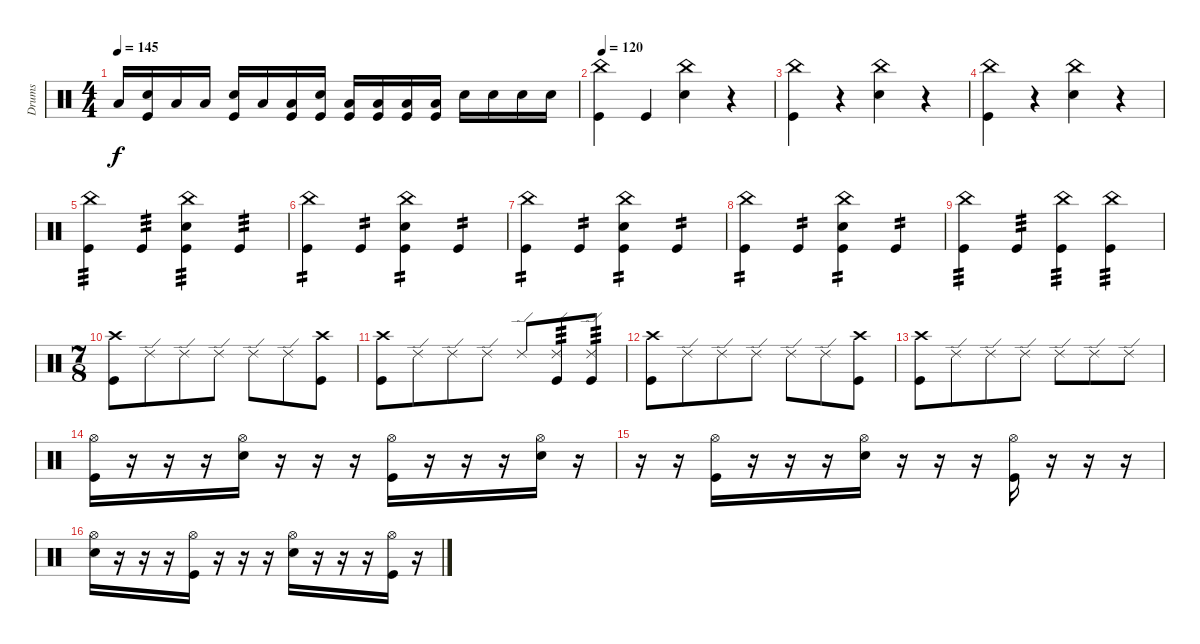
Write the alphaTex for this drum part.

\track ("Drums" "Drums") {instrument percussion}
\staff {score}
\articulation defaults
\ts (4 4)
\tempo 145
\clef neutral
\ks c "Low Tom (hit)".16{dy f}
("Electric Snare (hit)" "Kick (hit)").16 "Low Tom (hit)".16 "Low Tom (hit)".16 ("Electric Snare (hit)" "Kick (hit)").16 "Low Tom (hit)".16 ("Low Floor Tom (hit)" "Kick (hit)").16 ("Electric Snare (hit)" "Kick (hit)").16 ("Low Floor Tom (hit)" "Kick (hit)").16 ("Low Floor Tom (hit)" "Kick (hit)").16 ("Low Floor Tom (hit)" "Kick (hit)").16 ("Low Floor Tom (hit)" "Kick (hit)").16 "Electric Snare (hit)".16 "Electric Snare (hit)".16 "Electric Snare (hit)".16 "Electric Snare (hit)".16 |
\tempo 120
("China (hit)" "Kick (hit)").4 "Kick (hit)".4 ("China (hit)" "Electric Snare (hit)").4 r.4 |
("China (hit)" "Kick (hit)").4 r.4 ("China (hit)" "Electric Snare (hit)").4 r.4 |
("China (hit)" "Kick (hit)").4 r.4 ("China (hit)" "Electric Snare (hit)").4 r.4 |
("China (hit)" "Kick (hit)").4{tp 3} "Kick (hit)".4{tp 3} ("China (hit)" "Electric Snare (hit)" "Kick (hit)").4{tp 3} "Kick (hit)".4{tp 3} |
("China (hit)" "Kick (hit)").4{tp 2} "Kick (hit)".4{tp 2} ("China (hit)" "Electric Snare (hit)" "Kick (hit)").4{tp 2} "Kick (hit)".4{tp 2} |
("China (hit)" "Kick (hit)").4{tp 2} "Kick (hit)".4{tp 2} ("China (hit)" "Electric Snare (hit)" "Kick (hit)").4{tp 2} "Kick (hit)".4{tp 2} |
("China (hit)" "Kick (hit)").4{tp 2} "Kick (hit)".4{tp 2} ("China (hit)" "Electric Snare (hit)" "Kick (hit)").4{tp 2} "Kick (hit)".4{tp 2} |
("China (hit)" "Kick (hit)").4{tp 3} "Kick (hit)".4{tp 3} ("China (hit)" "Kick (hit)").4{tp 3} ("China (hit)" "Kick (hit)").4{tp 3} |
\ts (7 8)
("Crash high (hit)" "Kick (hit)").8 "Ride (edge) 2".8 "Ride (edge) 2".8 "Ride (edge) 2".8 "Ride (edge) 2".8 "Ride (edge) 2".8 ("Crash high (hit)" "Kick (hit)").8 |
("Crash high (hit)" "Kick (hit)").8 "Ride (edge) 2".8 "Ride (edge) 2".8 "Ride (edge) 2".8 "Ride (edge) 2".8 ("Ride (edge) 2" "Kick (hit)").8{tp 3} ("Ride (edge) 2" "Kick (hit)").8{tp 3} |
("Crash high (hit)" "Kick (hit)").8 "Ride (edge) 2".8 "Ride (edge) 2".8 "Ride (edge) 2".8 "Ride (edge) 2".8 "Ride (edge) 2".8 ("Crash high (hit)" "Kick (hit)").8 |
("Crash high (hit)" "Kick (hit)").8 "Ride (edge) 2".8 "Ride (edge) 2".8 "Ride (edge) 2".8 "Ride (edge) 2".8 "Ride (edge) 2".8 "Ride (edge) 2".8 |
("Hi-Hat (open)" "Kick (hit)").16 r.16 r.16 r.16 ("Hi-Hat (open)" "Electric Snare (hit)").16 r.16 r.16 r.16 ("Hi-Hat (open)" "Kick (hit)").16 r.16 r.16 r.16 ("Hi-Hat (open)" "Electric Snare (hit)").16 r.16 |
r.16 r.16 ("Hi-Hat (open)" "Kick (hit)").16 r.16 r.16 r.16 ("Hi-Hat (open)" "Electric Snare (hit)").16 r.16 r.16 r.16 ("Hi-Hat (open)" "Kick (hit)").16 r.16 r.16 r.16 |
("Hi-Hat (open)" "Electric Snare (hit)").16 r.16 r.16 r.16 ("Hi-Hat (open)" "Kick (hit)").16 r.16 r.16 r.16 ("Hi-Hat (open)" "Electric Snare (hit)").16 r.16 r.16 r.16 ("Hi-Hat (open)" "Kick (hit)").16 r.16
